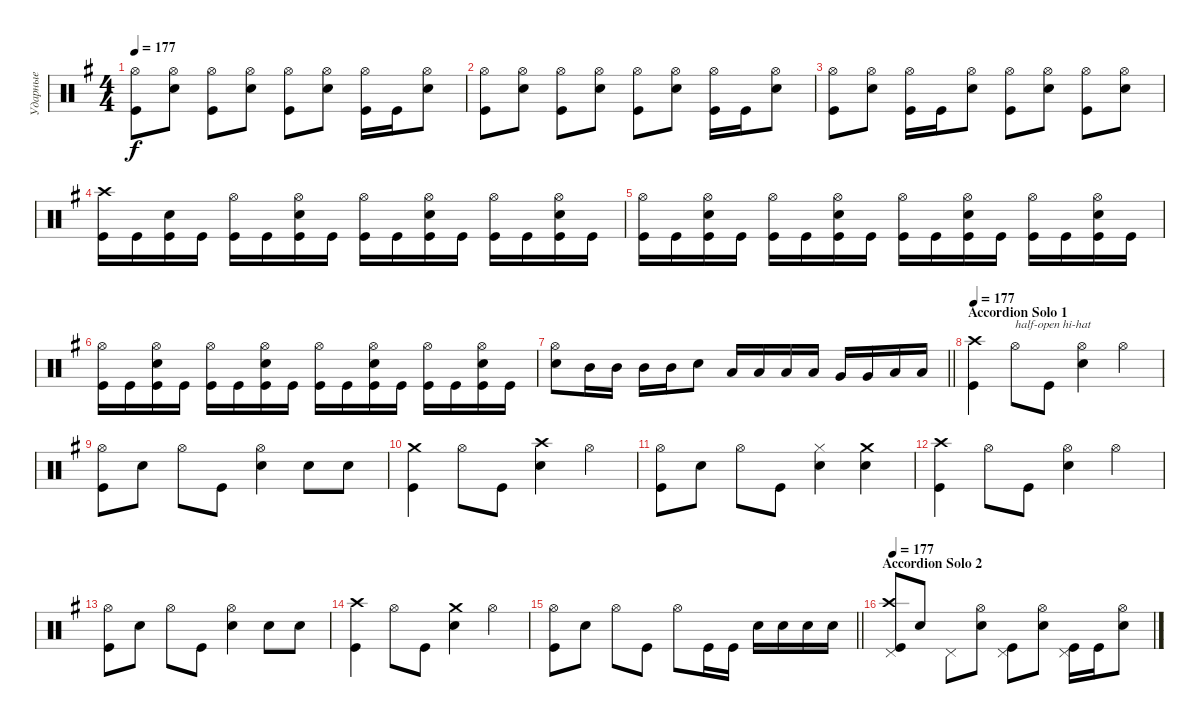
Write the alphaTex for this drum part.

\track ("Ударные" "Ударные") {instrument percussion}
\staff {score}
\articulation defaults
\ts (4 4)
\tempo 177
\clef neutral
\ks eminor
("Kick (hit)" "Hi-Hat (open)").8{dy f} ("Snare (hit) 2" "Hi-Hat (open)").8 ("Kick (hit)" "Hi-Hat (open)").8 ("Snare (hit) 2" "Hi-Hat (open)").8 ("Kick (hit)" "Hi-Hat (open)").8 ("Snare (hit) 2" "Hi-Hat (open)").8 ("Kick (hit)" "Hi-Hat (open)").16 "Kick (hit)".16 ("Snare (hit) 2" "Hi-Hat (open)").8 |
("Kick (hit)" "Hi-Hat (open)").8 ("Snare (hit) 2" "Hi-Hat (open)").8 ("Kick (hit)" "Hi-Hat (open)").8 ("Snare (hit) 2" "Hi-Hat (open)").8 ("Kick (hit)" "Hi-Hat (open)").8 ("Snare (hit) 2" "Hi-Hat (open)").8 ("Kick (hit)" "Hi-Hat (open)").16 "Kick (hit)".16 ("Snare (hit) 2" "Hi-Hat (open)").8 |
("Kick (hit)" "Hi-Hat (open)").8 ("Snare (hit) 2" "Hi-Hat (open)").8 ("Kick (hit)" "Hi-Hat (open)").16 "Kick (hit)".16 ("Snare (hit) 2" "Hi-Hat (open)").8 ("Kick (hit)" "Hi-Hat (open)").8 ("Snare (hit) 2" "Hi-Hat (open)").8 ("Kick (hit)" "Hi-Hat (open)").8 ("Snare (hit) 2" "Hi-Hat (open)").8 |
("Kick (hit)" "Crash high (hit)").16 "Kick (hit)".16 ("Kick (hit)" "Snare (hit) 2").16 "Kick (hit)".16 ("Kick (hit)" "Hi-Hat (open)").16 "Kick (hit)".16 ("Kick (hit)" "Snare (hit) 2" "Hi-Hat (open)").16 "Kick (hit)".16 ("Kick (hit)" "Hi-Hat (open)").16 "Kick (hit)".16 ("Kick (hit)" "Snare (hit) 2" "Hi-Hat (open)").16 "Kick (hit)".16 ("Kick (hit)" "Hi-Hat (open)").16 "Kick (hit)".16 ("Kick (hit)" "Snare (hit) 2" "Hi-Hat (open)").16 "Kick (hit)".16 |
("Kick (hit)" "Hi-Hat (open)").16 "Kick (hit)".16 ("Kick (hit)" "Snare (hit) 2" "Hi-Hat (open)").16 "Kick (hit)".16 ("Kick (hit)" "Hi-Hat (open)").16 "Kick (hit)".16 ("Kick (hit)" "Snare (hit) 2" "Hi-Hat (open)").16 "Kick (hit)".16 ("Kick (hit)" "Hi-Hat (open)").16 "Kick (hit)".16 ("Kick (hit)" "Snare (hit) 2" "Hi-Hat (open)").16 "Kick (hit)".16 ("Kick (hit)" "Hi-Hat (open)").16 "Kick (hit)".16 ("Kick (hit)" "Snare (hit) 2" "Hi-Hat (open)").16 "Kick (hit)".16 |
("Kick (hit)" "Hi-Hat (open)").16 "Kick (hit)".16 ("Kick (hit)" "Snare (hit) 2" "Hi-Hat (open)").16 "Kick (hit)".16 ("Kick (hit)" "Hi-Hat (open)").16 "Kick (hit)".16 ("Kick (hit)" "Snare (hit) 2" "Hi-Hat (open)").16 "Kick (hit)".16 ("Kick (hit)" "Hi-Hat (open)").16 "Kick (hit)".16 ("Kick (hit)" "Snare (hit) 2" "Hi-Hat (open)").16 "Kick (hit)".16 ("Kick (hit)" "Hi-Hat (open)").16 "Kick (hit)".16 ("Kick (hit)" "Snare (hit) 2" "Hi-Hat (open)").16 "Kick (hit)".16 |
\barLineRight lightlight
("Snare (hit) 2" "Hi-Hat (open)").8 "Mid Tom (hit)".16 "Mid Tom (hit)".16 "Mid Tom (hit)".16 "Mid Tom (hit)".16 "Snare (hit) 2".8 "Low Tom (hit)".16 "Low Tom (hit)".16 "Low Tom (hit)".16 "Low Tom (hit)".16 "Very Low Tom (hit)".16 "Very Low Tom (hit)".16 "Low Floor Tom (hit)".16 "Low Floor Tom (hit)".16 |
\section ("" "Accordion Solo 1")
\tempo 177
("Crash high (hit)" "Kick (hit)").4 "Hi-Hat (open)".8{txt "half-open hi-hat"} "Kick (hit)".8 ("Snare (hit) 2" "Hi-Hat (open)").4 "Hi-Hat (open)".4 |
("Kick (hit)" "Hi-Hat (open)").8 "Snare (hit) 2".8 "Hi-Hat (open)".8 "Kick (hit)".8 ("Snare (hit) 2" "Hi-Hat (open)").4 "Snare (hit) 2".8 "Snare (hit) 2".8 |
("Crash medium (hit)" "Kick (hit)").4 "Hi-Hat (open)".8 "Kick (hit)".8 ("Snare (hit) 2" "Crash high (hit)").4 "Hi-Hat (open)".4 |
("Kick (hit)" "Hi-Hat (open)").8 "Snare (hit) 2".8 "Hi-Hat (open)".8 "Kick (hit)".8 ("Snare (hit) 2" "Hi-Hat (closed)").4 ("Snare (hit) 2" "Crash medium (hit)").4 |
("Crash high (hit)" "Kick (hit)").4 "Hi-Hat (open)".8 "Kick (hit)".8 ("Snare (hit) 2" "Hi-Hat (open)").4 "Hi-Hat (open)".4 |
("Kick (hit)" "Hi-Hat (open)").8 "Snare (hit) 2".8 "Hi-Hat (open)".8 "Kick (hit)".8 ("Snare (hit) 2" "Hi-Hat (open)").4 "Snare (hit) 2".8 "Snare (hit) 2".8 |
("Crash high (hit)" "Kick (hit)").4 "Hi-Hat (open)".8 "Kick (hit)".8 ("Snare (hit) 2" "Crash medium (hit)").4 "Hi-Hat (open)".4 |
\barLineRight lightlight
("Kick (hit)" "Hi-Hat (open)").8 "Snare (hit) 2".8 "Hi-Hat (open)".8 "Kick (hit)".8 "Hi-Hat (open)".8 "Kick (hit)".16 "Kick (hit)".16 "Snare (hit) 2".16 "Snare (hit) 2".16 "Snare (hit) 2".16 "Snare (hit) 2".16 |
\section ("" "Accordion Solo 2")
\tempo 177
("Kick (hit)" "Crash high (hit)" "Pedal Hi-Hat (hit)").8 "Snare (hit) 2".8 "Pedal Hi-Hat (hit)".8 ("Snare (hit) 2" "Hi-Hat (open)").8 ("Kick (hit)" "Pedal Hi-Hat (hit)").8 ("Hi-Hat (open)" "Snare (hit) 2").8 ("Kick (hit)" "Pedal Hi-Hat (hit)").16 "Kick (hit)".16 ("Snare (hit) 2" "Hi-Hat (open)").8
